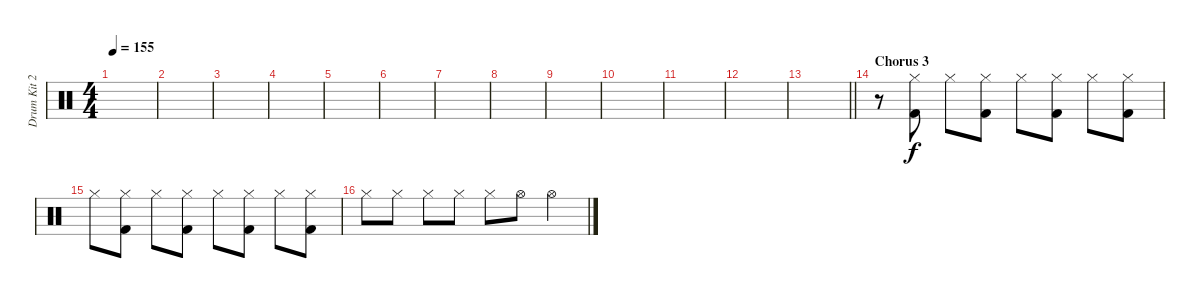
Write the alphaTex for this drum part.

\track ("Drum Kit 2" "Drum Kit 2") {instrument percussion}
\staff {score}
\articulation defaults
\ts (4 4)
\tempo 155
\clef neutral
\ks c
|
|
|
|
|
|
|
|
|
|
|
|
\barLineRight lightlight
|
\section ("" "Chorus 3")
r.8 ("Kick (hit) 2" "Hi-Hat (closed)").8 "Hi-Hat (closed)".8 ("Kick (hit) 2" "Hi-Hat (closed)").8 "Hi-Hat (closed)".8 ("Kick (hit) 2" "Hi-Hat (closed)").8 "Hi-Hat (closed)".8 ("Kick (hit) 2" "Hi-Hat (closed)").8 |
"Hi-Hat (closed)".8 ("Kick (hit) 2" "Hi-Hat (closed)").8 "Hi-Hat (closed)".8 ("Kick (hit) 2" "Hi-Hat (closed)").8 "Hi-Hat (closed)".8 ("Kick (hit) 2" "Hi-Hat (closed)").8 "Hi-Hat (closed)".8 ("Kick (hit) 2" "Hi-Hat (closed)").8 |
"Hi-Hat (closed)".8 "Hi-Hat (closed)".8 "Hi-Hat (closed)".8 "Hi-Hat (closed)".8 "Hi-Hat (closed)".8 "Hi-Hat (open)".8 "Hi-Hat (open)".4
